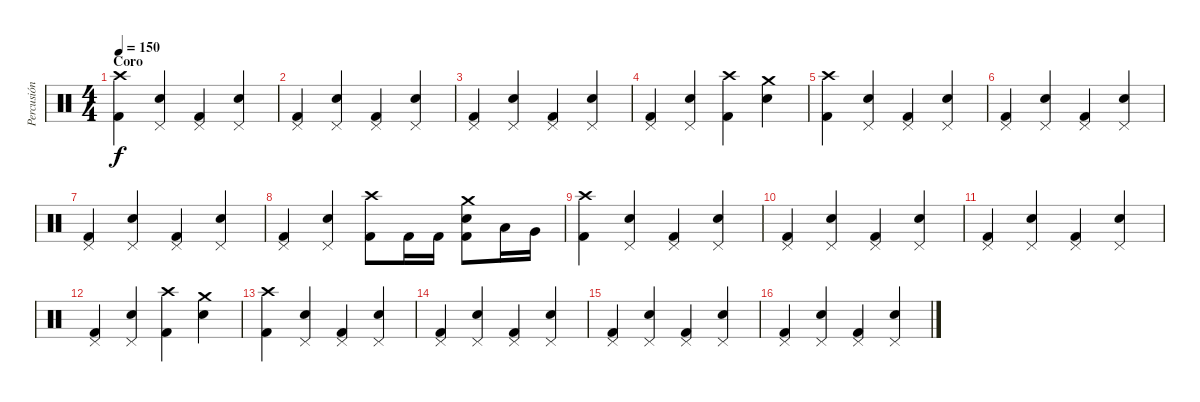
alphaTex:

\track ("Percusión" "Percusión") {instrument percussion}
\staff {score}
\articulation defaults
\ts (4 4)
\section ("" "Coro")
\tempo 150
\clef neutral
\ks c
("Crash high (hit)" "Kick (hit) 2").4{dy f} ("Pedal Hi-Hat (hit)" "Electric Snare (hit)").4 ("Pedal Hi-Hat (hit)" "Kick (hit) 2").4 ("Pedal Hi-Hat (hit)" "Electric Snare (hit)").4 |
("Pedal Hi-Hat (hit)" "Kick (hit) 2").4 ("Pedal Hi-Hat (hit)" "Electric Snare (hit)").4 ("Pedal Hi-Hat (hit)" "Kick (hit) 2").4 ("Pedal Hi-Hat (hit)" "Electric Snare (hit)").4 |
("Pedal Hi-Hat (hit)" "Kick (hit) 2").4 ("Pedal Hi-Hat (hit)" "Electric Snare (hit)").4 ("Pedal Hi-Hat (hit)" "Kick (hit) 2").4 ("Pedal Hi-Hat (hit)" "Electric Snare (hit)").4 |
("Pedal Hi-Hat (hit)" "Kick (hit) 2").4 ("Pedal Hi-Hat (hit)" "Electric Snare (hit)").4 ("Crash high (hit)" "Kick (hit) 2").4 ("Crash medium (hit)" "Electric Snare (hit)").4 |
("Crash high (hit)" "Kick (hit) 2").4 ("Pedal Hi-Hat (hit)" "Electric Snare (hit)").4 ("Pedal Hi-Hat (hit)" "Kick (hit) 2").4 ("Pedal Hi-Hat (hit)" "Electric Snare (hit)").4 |
("Pedal Hi-Hat (hit)" "Kick (hit) 2").4 ("Pedal Hi-Hat (hit)" "Electric Snare (hit)").4 ("Pedal Hi-Hat (hit)" "Kick (hit) 2").4 ("Pedal Hi-Hat (hit)" "Electric Snare (hit)").4 |
("Pedal Hi-Hat (hit)" "Kick (hit) 2").4 ("Pedal Hi-Hat (hit)" "Electric Snare (hit)").4 ("Pedal Hi-Hat (hit)" "Kick (hit) 2").4 ("Pedal Hi-Hat (hit)" "Electric Snare (hit)").4 |
("Pedal Hi-Hat (hit)" "Kick (hit) 2").4 ("Pedal Hi-Hat (hit)" "Electric Snare (hit)").4 ("Crash high (hit)" "Kick (hit) 2").8 "Kick (hit) 2".16 "Kick (hit) 2".16 ("Crash medium (hit)" "Electric Snare (hit)" "Kick (hit) 2").8 "Low Tom (hit)".16 "Very Low Tom (hit)".16 |
("Crash high (hit)" "Kick (hit) 2").4 ("Pedal Hi-Hat (hit)" "Electric Snare (hit)").4 ("Pedal Hi-Hat (hit)" "Kick (hit) 2").4 ("Pedal Hi-Hat (hit)" "Electric Snare (hit)").4 |
("Pedal Hi-Hat (hit)" "Kick (hit) 2").4 ("Pedal Hi-Hat (hit)" "Electric Snare (hit)").4 ("Pedal Hi-Hat (hit)" "Kick (hit) 2").4 ("Pedal Hi-Hat (hit)" "Electric Snare (hit)").4 |
("Pedal Hi-Hat (hit)" "Kick (hit) 2").4 ("Pedal Hi-Hat (hit)" "Electric Snare (hit)").4 ("Pedal Hi-Hat (hit)" "Kick (hit) 2").4 ("Pedal Hi-Hat (hit)" "Electric Snare (hit)").4 |
("Pedal Hi-Hat (hit)" "Kick (hit) 2").4 ("Pedal Hi-Hat (hit)" "Electric Snare (hit)").4 ("Crash high (hit)" "Kick (hit) 2").4 ("Crash medium (hit)" "Electric Snare (hit)").4 |
("Crash high (hit)" "Kick (hit) 2").4 ("Pedal Hi-Hat (hit)" "Electric Snare (hit)").4 ("Pedal Hi-Hat (hit)" "Kick (hit) 2").4 ("Pedal Hi-Hat (hit)" "Electric Snare (hit)").4 |
("Pedal Hi-Hat (hit)" "Kick (hit) 2").4 ("Pedal Hi-Hat (hit)" "Electric Snare (hit)").4 ("Pedal Hi-Hat (hit)" "Kick (hit) 2").4 ("Pedal Hi-Hat (hit)" "Electric Snare (hit)").4 |
("Pedal Hi-Hat (hit)" "Kick (hit) 2").4 ("Pedal Hi-Hat (hit)" "Electric Snare (hit)").4 ("Pedal Hi-Hat (hit)" "Kick (hit) 2").4 ("Pedal Hi-Hat (hit)" "Electric Snare (hit)").4 |
("Pedal Hi-Hat (hit)" "Kick (hit) 2").4 ("Pedal Hi-Hat (hit)" "Electric Snare (hit)").4 ("Pedal Hi-Hat (hit)" "Kick (hit) 2").4 ("Pedal Hi-Hat (hit)" "Electric Snare (hit)").4
